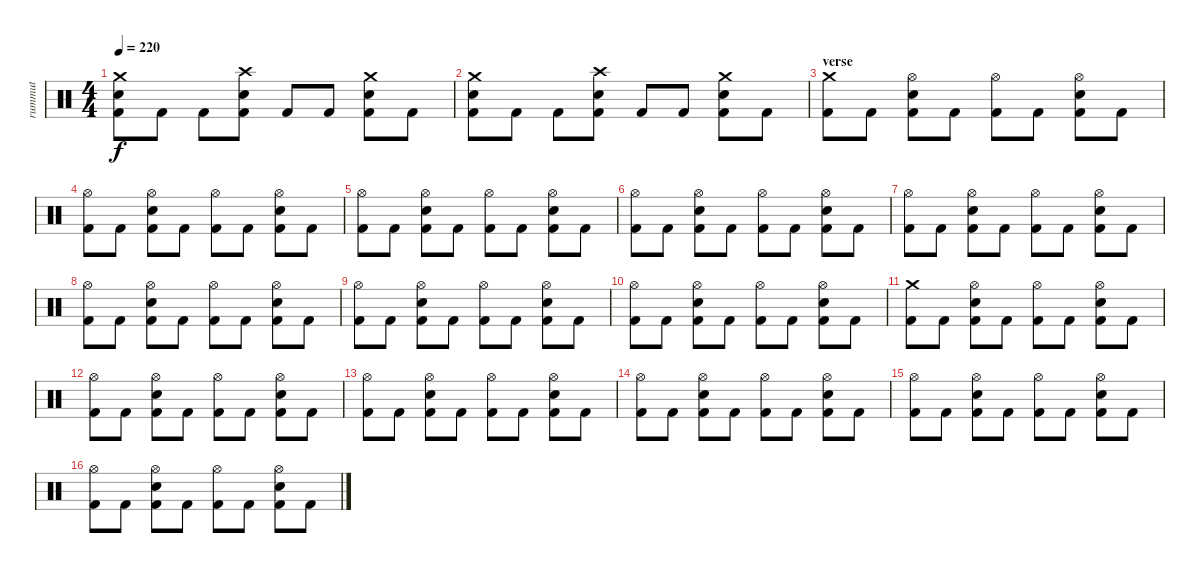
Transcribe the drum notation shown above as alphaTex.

\track ("rummut" "rummut") {instrument percussion}
\staff {score}
\articulation defaults
\ts (4 4)
\tempo 220
\clef neutral
\ks c
("Crash medium (hit)" "Electric Snare (hit)" "Kick (hit) 2").8{dy f} "Kick (hit) 2".8 "Kick (hit) 2".8 ("Crash high (hit)" "Electric Snare (hit)" "Kick (hit) 2").8 "Kick (hit) 2".8 "Kick (hit) 2".8 ("Crash medium (hit)" "Electric Snare (hit)" "Kick (hit) 2").8 "Kick (hit) 2".8 |
("Crash medium (hit)" "Electric Snare (hit)" "Kick (hit) 2").8 "Kick (hit) 2".8 "Kick (hit) 2".8 ("Crash high (hit)" "Electric Snare (hit)" "Kick (hit) 2").8 "Kick (hit) 2".8 "Kick (hit) 2".8 ("Crash medium (hit)" "Electric Snare (hit)" "Kick (hit) 2").8 "Kick (hit) 2".8 |
\section ("" "verse")
("Crash medium (hit)" "Kick (hit) 2").8 "Kick (hit) 2".8 ("Hi-Hat (open)" "Electric Snare (hit)" "Kick (hit) 2").8 "Kick (hit) 2".8 ("Hi-Hat (open)" "Kick (hit) 2").8 "Kick (hit) 2".8 ("Hi-Hat (open)" "Electric Snare (hit)" "Kick (hit) 2").8 "Kick (hit) 2".8 |
("Hi-Hat (open)" "Kick (hit) 2").8 "Kick (hit) 2".8 ("Hi-Hat (open)" "Electric Snare (hit)" "Kick (hit) 2").8 "Kick (hit) 2".8 ("Hi-Hat (open)" "Kick (hit) 2").8 "Kick (hit) 2".8 ("Hi-Hat (open)" "Electric Snare (hit)" "Kick (hit) 2").8 "Kick (hit) 2".8 |
("Hi-Hat (open)" "Kick (hit) 2").8 "Kick (hit) 2".8 ("Hi-Hat (open)" "Electric Snare (hit)" "Kick (hit) 2").8 "Kick (hit) 2".8 ("Hi-Hat (open)" "Kick (hit) 2").8 "Kick (hit) 2".8 ("Hi-Hat (open)" "Electric Snare (hit)" "Kick (hit) 2").8 "Kick (hit) 2".8 |
("Hi-Hat (open)" "Kick (hit) 2").8 "Kick (hit) 2".8 ("Hi-Hat (open)" "Electric Snare (hit)" "Kick (hit) 2").8 "Kick (hit) 2".8 ("Hi-Hat (open)" "Kick (hit) 2").8 "Kick (hit) 2".8 ("Hi-Hat (open)" "Electric Snare (hit)" "Kick (hit) 2").8 "Kick (hit) 2".8 |
("Hi-Hat (open)" "Kick (hit) 2").8 "Kick (hit) 2".8 ("Hi-Hat (open)" "Electric Snare (hit)" "Kick (hit) 2").8 "Kick (hit) 2".8 ("Hi-Hat (open)" "Kick (hit) 2").8 "Kick (hit) 2".8 ("Hi-Hat (open)" "Electric Snare (hit)" "Kick (hit) 2").8 "Kick (hit) 2".8 |
("Hi-Hat (open)" "Kick (hit) 2").8 "Kick (hit) 2".8 ("Hi-Hat (open)" "Electric Snare (hit)" "Kick (hit) 2").8 "Kick (hit) 2".8 ("Hi-Hat (open)" "Kick (hit) 2").8 "Kick (hit) 2".8 ("Hi-Hat (open)" "Electric Snare (hit)" "Kick (hit) 2").8 "Kick (hit) 2".8 |
("Hi-Hat (open)" "Kick (hit) 2").8 "Kick (hit) 2".8 ("Hi-Hat (open)" "Electric Snare (hit)" "Kick (hit) 2").8 "Kick (hit) 2".8 ("Hi-Hat (open)" "Kick (hit) 2").8 "Kick (hit) 2".8 ("Hi-Hat (open)" "Electric Snare (hit)" "Kick (hit) 2").8 "Kick (hit) 2".8 |
("Hi-Hat (open)" "Kick (hit) 2").8 "Kick (hit) 2".8 ("Hi-Hat (open)" "Electric Snare (hit)" "Kick (hit) 2").8 "Kick (hit) 2".8 ("Hi-Hat (open)" "Kick (hit) 2").8 "Kick (hit) 2".8 ("Hi-Hat (open)" "Electric Snare (hit)" "Kick (hit) 2").8 "Kick (hit) 2".8 |
("Crash medium (hit)" "Kick (hit) 2").8 "Kick (hit) 2".8 ("Hi-Hat (open)" "Electric Snare (hit)" "Kick (hit) 2").8 "Kick (hit) 2".8 ("Hi-Hat (open)" "Kick (hit) 2").8 "Kick (hit) 2".8 ("Hi-Hat (open)" "Electric Snare (hit)" "Kick (hit) 2").8 "Kick (hit) 2".8 |
("Hi-Hat (open)" "Kick (hit) 2").8 "Kick (hit) 2".8 ("Hi-Hat (open)" "Electric Snare (hit)" "Kick (hit) 2").8 "Kick (hit) 2".8 ("Hi-Hat (open)" "Kick (hit) 2").8 "Kick (hit) 2".8 ("Hi-Hat (open)" "Electric Snare (hit)" "Kick (hit) 2").8 "Kick (hit) 2".8 |
("Hi-Hat (open)" "Kick (hit) 2").8 "Kick (hit) 2".8 ("Hi-Hat (open)" "Electric Snare (hit)" "Kick (hit) 2").8 "Kick (hit) 2".8 ("Hi-Hat (open)" "Kick (hit) 2").8 "Kick (hit) 2".8 ("Hi-Hat (open)" "Electric Snare (hit)" "Kick (hit) 2").8 "Kick (hit) 2".8 |
("Hi-Hat (open)" "Kick (hit) 2").8 "Kick (hit) 2".8 ("Hi-Hat (open)" "Electric Snare (hit)" "Kick (hit) 2").8 "Kick (hit) 2".8 ("Hi-Hat (open)" "Kick (hit) 2").8 "Kick (hit) 2".8 ("Hi-Hat (open)" "Electric Snare (hit)" "Kick (hit) 2").8 "Kick (hit) 2".8 |
("Hi-Hat (open)" "Kick (hit) 2").8 "Kick (hit) 2".8 ("Hi-Hat (open)" "Electric Snare (hit)" "Kick (hit) 2").8 "Kick (hit) 2".8 ("Hi-Hat (open)" "Kick (hit) 2").8 "Kick (hit) 2".8 ("Hi-Hat (open)" "Electric Snare (hit)" "Kick (hit) 2").8 "Kick (hit) 2".8 |
("Hi-Hat (open)" "Kick (hit) 2").8 "Kick (hit) 2".8 ("Hi-Hat (open)" "Electric Snare (hit)" "Kick (hit) 2").8 "Kick (hit) 2".8 ("Hi-Hat (open)" "Kick (hit) 2").8 "Kick (hit) 2".8 ("Hi-Hat (open)" "Electric Snare (hit)" "Kick (hit) 2").8 "Kick (hit) 2".8
